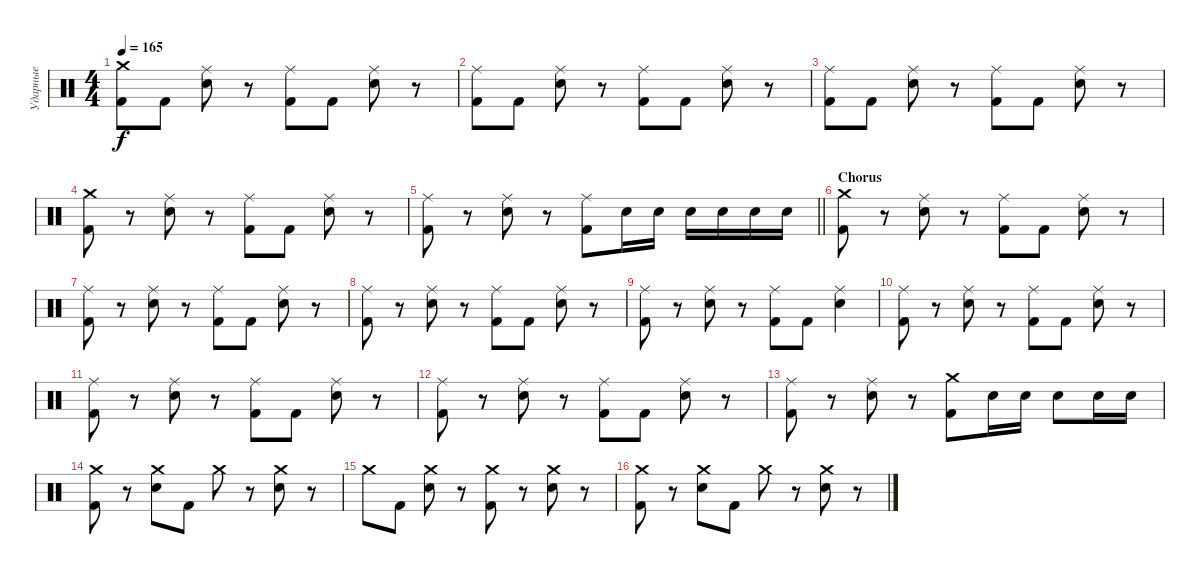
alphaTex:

\track ("Ударные" "Ударные") {instrument percussion}
\staff {score}
\articulation defaults
\ts (4 4)
\tempo 165
\clef neutral
\ks c
("Crash medium (hit)" "Kick (hit) 2").8{dy f} "Kick (hit) 2".8 ("Ride (middle)" "Electric Snare (hit)").8 r.8 ("Ride (middle)" "Kick (hit) 2").8 "Kick (hit) 2".8 ("Ride (middle)" "Electric Snare (hit)").8 r.8 |
("Ride (middle)" "Kick (hit) 2").8 "Kick (hit) 2".8 ("Ride (middle)" "Electric Snare (hit)").8 r.8 ("Ride (middle)" "Kick (hit) 2").8 "Kick (hit) 2".8 ("Ride (middle)" "Electric Snare (hit)").8 r.8 |
("Ride (middle)" "Kick (hit) 2").8 "Kick (hit) 2".8 ("Ride (middle)" "Electric Snare (hit)").8 r.8 ("Ride (middle)" "Kick (hit) 2").8 "Kick (hit) 2".8 ("Ride (middle)" "Electric Snare (hit)").8 r.8 |
("Crash medium (hit)" "Kick (hit) 2").8 r.8 ("Ride (middle)" "Electric Snare (hit)").8 r.8 ("Ride (middle)" "Kick (hit) 2").8 "Kick (hit) 2".8 ("Ride (middle)" "Electric Snare (hit)").8 r.8 |
\barLineRight lightlight
("Ride (middle)" "Kick (hit) 2").8 r.8 ("Ride (middle)" "Electric Snare (hit)").8 r.8 ("Ride (middle)" "Kick (hit) 2").8 "Electric Snare (hit)".16 "Electric Snare (hit)".16 "Electric Snare (hit)".16 "Electric Snare (hit)".16 "Electric Snare (hit)".16 "Electric Snare (hit)".16 |
\section ("" "Сhorus")
("Crash medium (hit)" "Kick (hit) 2").8 r.8 ("Ride (middle)" "Electric Snare (hit)").8 r.8 ("Ride (middle)" "Kick (hit) 2").8 "Kick (hit) 2".8 ("Ride (middle)" "Electric Snare (hit)").8 r.8 |
("Ride (middle)" "Kick (hit) 2").8 r.8 ("Ride (middle)" "Electric Snare (hit)").8 r.8 ("Ride (middle)" "Kick (hit) 2").8 "Kick (hit) 2".8 ("Ride (middle)" "Electric Snare (hit)").8 r.8 |
("Ride (middle)" "Kick (hit) 2").8 r.8 ("Ride (middle)" "Electric Snare (hit)").8 r.8 ("Ride (middle)" "Kick (hit) 2").8 "Kick (hit) 2".8 ("Ride (middle)" "Electric Snare (hit)").8 r.8 |
("Ride (middle)" "Kick (hit) 2").8 r.8 ("Ride (middle)" "Electric Snare (hit)").8 r.8 ("Ride (middle)" "Kick (hit) 2").8 "Kick (hit) 2".8 ("Ride (middle)" "Electric Snare (hit)").4 |
("Ride (middle)" "Kick (hit) 2").8 r.8 ("Ride (middle)" "Electric Snare (hit)").8 r.8 ("Ride (middle)" "Kick (hit) 2").8 "Kick (hit) 2".8 ("Ride (middle)" "Electric Snare (hit)").8 r.8 |
("Ride (middle)" "Kick (hit) 2").8 r.8 ("Ride (middle)" "Electric Snare (hit)").8 r.8 ("Ride (middle)" "Kick (hit) 2").8 "Kick (hit) 2".8 ("Ride (middle)" "Electric Snare (hit)").8 r.8 |
("Ride (middle)" "Kick (hit) 2").8 r.8 ("Ride (middle)" "Electric Snare (hit)").8 r.8 ("Ride (middle)" "Kick (hit) 2").8 "Kick (hit) 2".8 ("Ride (middle)" "Electric Snare (hit)").8 r.8 |
("Ride (middle)" "Kick (hit) 2").8 r.8 ("Ride (middle)" "Electric Snare (hit)").8 r.8 ("Crash medium (hit)" "Kick (hit) 2").8 "Electric Snare (hit)".16 "Electric Snare (hit)".16 "Electric Snare (hit)".8 "Electric Snare (hit)".16 "Electric Snare (hit)".16 |
("Crash medium (hit)" "Kick (hit) 2").8 r.8 ("Crash medium (hit)" "Electric Snare (hit)").8 "Kick (hit) 2".8 "Crash medium (hit)".8 r.8 ("Crash medium (hit)" "Electric Snare (hit)").8 r.8 |
"Crash medium (hit)".8 "Kick (hit) 2".8 ("Crash medium (hit)" "Electric Snare (hit)").8 r.8 ("Crash medium (hit)" "Kick (hit) 2").8 r.8 ("Crash medium (hit)" "Electric Snare (hit)").8 r.8 |
("Crash medium (hit)" "Kick (hit) 2").8 r.8 ("Crash medium (hit)" "Electric Snare (hit)").8 "Kick (hit) 2".8 "Crash medium (hit)".8 r.8 ("Crash medium (hit)" "Electric Snare (hit)").8 r.8
